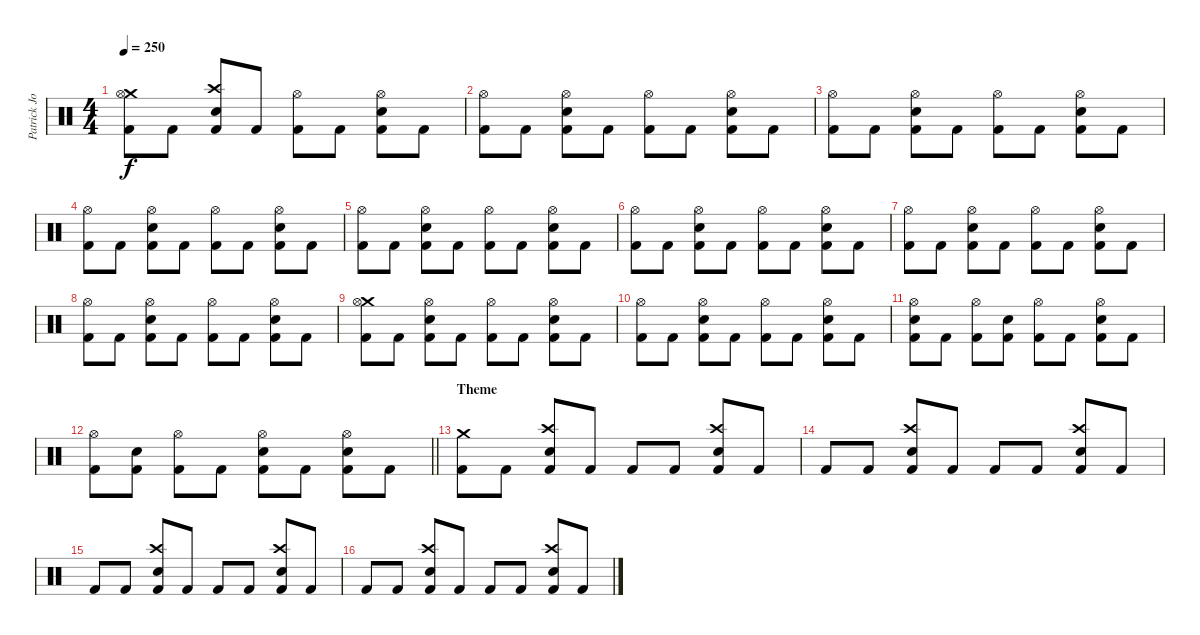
\track ("Patrick Johansson" "Patrick Jo") {instrument percussion}
\staff {score}
\articulation defaults
\ts (4 4)
\tempo 250
\clef neutral
\ks c
("Crash medium (hit)" "Hi-Hat (open)" "Kick (hit) 2").8{dy f} "Kick (hit) 2".8 ("Crash high (hit)" "Snare (hit) 2" "Kick (hit) 2").8 "Kick (hit) 2".8 ("Hi-Hat (open)" "Kick (hit) 2").8 "Kick (hit) 2".8 ("Hi-Hat (open)" "Snare (hit) 2" "Kick (hit) 2").8 "Kick (hit) 2".8 |
("Hi-Hat (open)" "Kick (hit) 2").8 "Kick (hit) 2".8 ("Hi-Hat (open)" "Snare (hit) 2" "Kick (hit) 2").8 "Kick (hit) 2".8 ("Hi-Hat (open)" "Kick (hit) 2").8 "Kick (hit) 2".8 ("Hi-Hat (open)" "Snare (hit) 2" "Kick (hit) 2").8 "Kick (hit) 2".8 |
("Hi-Hat (open)" "Kick (hit) 2").8 "Kick (hit) 2".8 ("Hi-Hat (open)" "Snare (hit) 2" "Kick (hit) 2").8 "Kick (hit) 2".8 ("Hi-Hat (open)" "Kick (hit) 2").8 "Kick (hit) 2".8 ("Hi-Hat (open)" "Snare (hit) 2" "Kick (hit) 2").8 "Kick (hit) 2".8 |
("Hi-Hat (open)" "Kick (hit) 2").8 "Kick (hit) 2".8 ("Hi-Hat (open)" "Snare (hit) 2" "Kick (hit) 2").8 "Kick (hit) 2".8 ("Hi-Hat (open)" "Kick (hit) 2").8 "Kick (hit) 2".8 ("Hi-Hat (open)" "Snare (hit) 2" "Kick (hit) 2").8 "Kick (hit) 2".8 |
("Hi-Hat (open)" "Kick (hit) 2").8 "Kick (hit) 2".8 ("Hi-Hat (open)" "Snare (hit) 2" "Kick (hit) 2").8 "Kick (hit) 2".8 ("Hi-Hat (open)" "Kick (hit) 2").8 "Kick (hit) 2".8 ("Hi-Hat (open)" "Snare (hit) 2" "Kick (hit) 2").8 "Kick (hit) 2".8 |
("Hi-Hat (open)" "Kick (hit) 2").8 "Kick (hit) 2".8 ("Hi-Hat (open)" "Snare (hit) 2" "Kick (hit) 2").8 "Kick (hit) 2".8 ("Hi-Hat (open)" "Kick (hit) 2").8 "Kick (hit) 2".8 ("Hi-Hat (open)" "Snare (hit) 2" "Kick (hit) 2").8 "Kick (hit) 2".8 |
("Hi-Hat (open)" "Kick (hit) 2").8 "Kick (hit) 2".8 ("Hi-Hat (open)" "Snare (hit) 2" "Kick (hit) 2").8 "Kick (hit) 2".8 ("Hi-Hat (open)" "Kick (hit) 2").8 "Kick (hit) 2".8 ("Hi-Hat (open)" "Snare (hit) 2" "Kick (hit) 2").8 "Kick (hit) 2".8 |
("Hi-Hat (open)" "Kick (hit) 2").8 "Kick (hit) 2".8 ("Hi-Hat (open)" "Snare (hit) 2" "Kick (hit) 2").8 "Kick (hit) 2".8 ("Hi-Hat (open)" "Kick (hit) 2").8 "Kick (hit) 2".8 ("Hi-Hat (open)" "Snare (hit) 2" "Kick (hit) 2").8 "Kick (hit) 2".8 |
("Crash medium (hit)" "Hi-Hat (open)" "Kick (hit) 2").8 "Kick (hit) 2".8 ("Hi-Hat (open)" "Snare (hit) 2" "Kick (hit) 2").8 "Kick (hit) 2".8 ("Hi-Hat (open)" "Kick (hit) 2").8 "Kick (hit) 2".8 ("Hi-Hat (open)" "Snare (hit) 2" "Kick (hit) 2").8 "Kick (hit) 2".8 |
("Hi-Hat (open)" "Kick (hit) 2").8 "Kick (hit) 2".8 ("Hi-Hat (open)" "Snare (hit) 2" "Kick (hit) 2").8 "Kick (hit) 2".8 ("Hi-Hat (open)" "Kick (hit) 2").8 "Kick (hit) 2".8 ("Hi-Hat (open)" "Snare (hit) 2" "Kick (hit) 2").8 "Kick (hit) 2".8 |
("Hi-Hat (open)" "Snare (hit) 2" "Kick (hit) 2").8 "Kick (hit) 2".8 ("Hi-Hat (open)" "Kick (hit) 2").8 ("Snare (hit) 2" "Kick (hit) 2").8 ("Hi-Hat (open)" "Kick (hit) 2").8 "Kick (hit) 2".8 ("Hi-Hat (open)" "Snare (hit) 2" "Kick (hit) 2").8 "Kick (hit) 2".8 |
\barLineRight lightlight
("Hi-Hat (open)" "Kick (hit) 2").8 ("Snare (hit) 2" "Kick (hit) 2").8 ("Hi-Hat (open)" "Kick (hit) 2").8 "Kick (hit) 2".8 ("Hi-Hat (open)" "Snare (hit) 2" "Kick (hit) 2").8 "Kick (hit) 2".8 ("Hi-Hat (open)" "Snare (hit) 2" "Kick (hit) 2").8 "Kick (hit) 2".8 |
\section ("" "Theme")
("Crash medium (hit)" "Kick (hit) 2").8 "Kick (hit) 2".8 ("Crash high (hit)" "Snare (hit) 2" "Kick (hit) 2").8 "Kick (hit) 2".8 "Kick (hit) 2".8 "Kick (hit) 2".8 ("Crash high (hit)" "Snare (hit) 2" "Kick (hit) 2").8 "Kick (hit) 2".8 |
"Kick (hit) 2".8 "Kick (hit) 2".8 ("Crash high (hit)" "Snare (hit) 2" "Kick (hit) 2").8 "Kick (hit) 2".8 "Kick (hit) 2".8 "Kick (hit) 2".8 ("Crash high (hit)" "Snare (hit) 2" "Kick (hit) 2").8 "Kick (hit) 2".8 |
"Kick (hit) 2".8 "Kick (hit) 2".8 ("Crash high (hit)" "Snare (hit) 2" "Kick (hit) 2").8 "Kick (hit) 2".8 "Kick (hit) 2".8 "Kick (hit) 2".8 ("Crash high (hit)" "Snare (hit) 2" "Kick (hit) 2").8 "Kick (hit) 2".8 |
"Kick (hit) 2".8 "Kick (hit) 2".8 ("Crash high (hit)" "Snare (hit) 2" "Kick (hit) 2").8 "Kick (hit) 2".8 "Kick (hit) 2".8 "Kick (hit) 2".8 ("Crash high (hit)" "Snare (hit) 2" "Kick (hit) 2").8 "Kick (hit) 2".8
